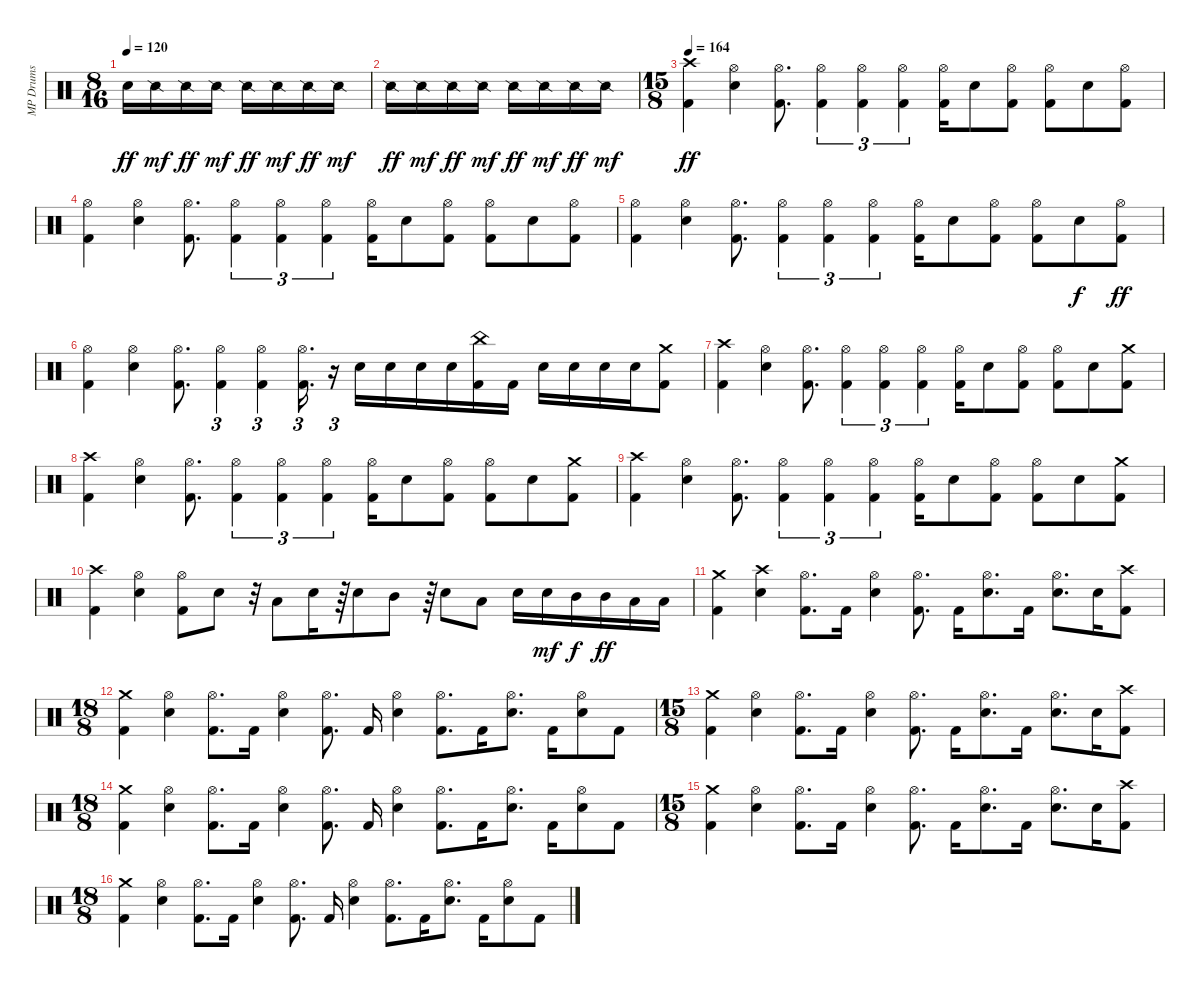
\track ("MP Drums" "MP Drums") {instrument percussion}
\staff {score}
\articulation defaults
\ts (8 16)
\tempo 120
\clef neutral
\ks c "Snare (hit) 2".16{dy ff} "Snare (side stick) 2".16{dy mf} "Snare (side stick) 2".16{dy ff} "Snare (side stick) 2".16{dy mf} "Snare (side stick) 2".16{dy ff} "Snare (side stick) 2".16{dy mf} "Snare (side stick) 2".16{dy ff} "Snare (side stick) 2".16{dy mf}
|
"Snare (side stick) 2".16{dy ff} "Snare (side stick) 2".16{dy mf} "Snare (side stick) 2".16{dy ff} "Snare (side stick) 2".16{dy mf} "Snare (side stick) 2".16{dy ff} "Snare (side stick) 2".16{dy mf} "Snare (side stick) 2".16{dy ff} "Snare (side stick) 2".16{dy mf} |
\ts (15 8)
\tempo 164
("Crash high (hit)" "Kick (hit) 2").4{dy ff} ("Hi-Hat (open)" "Snare (hit) 2").4 ("Hi-Hat (open)" "Kick (hit) 2").8{d} ("Hi-Hat (open)" "Kick (hit) 2").4{tu (3 2)} ("Hi-Hat (open)" "Kick (hit) 2").4{tu (3 2)} ("Hi-Hat (open)" "Kick (hit) 2").4{tu (3 2)} ("Hi-Hat (open)" "Kick (hit) 2").16 "Snare (hit) 2".8 ("Hi-Hat (open)" "Kick (hit) 2").8 ("Hi-Hat (open)" "Kick (hit) 2").8 "Snare (hit) 2".8 ("Hi-Hat (open)" "Kick (hit) 2").8 |
("Hi-Hat (open)" "Kick (hit) 2").4 ("Hi-Hat (open)" "Snare (hit) 2").4 ("Hi-Hat (open)" "Kick (hit) 2").8{d} ("Hi-Hat (open)" "Kick (hit) 2").4{tu (3 2)} ("Hi-Hat (open)" "Kick (hit) 2").4{tu (3 2)} ("Hi-Hat (open)" "Kick (hit) 2").4{tu (3 2)} ("Hi-Hat (open)" "Kick (hit) 2").16 "Snare (hit) 2".8 ("Hi-Hat (open)" "Kick (hit) 2").8 ("Hi-Hat (open)" "Kick (hit) 2").8 "Snare (hit) 2".8 ("Hi-Hat (open)" "Kick (hit) 2").8 |
("Hi-Hat (open)" "Kick (hit) 2").4 ("Hi-Hat (open)" "Snare (hit) 2").4 ("Hi-Hat (open)" "Kick (hit) 2").8{d} ("Hi-Hat (open)" "Kick (hit) 2").4{tu (3 2)} ("Hi-Hat (open)" "Kick (hit) 2").4{tu (3 2)} ("Hi-Hat (open)" "Kick (hit) 2").4{tu (3 2)} ("Hi-Hat (open)" "Kick (hit) 2").16 "Snare (hit) 2".8 ("Hi-Hat (open)" "Kick (hit) 2").8 ("Hi-Hat (open)" "Kick (hit) 2").8 "Snare (hit) 2".8{dy f} ("Hi-Hat (open)" "Kick (hit) 2").8{dy ff} |
("Hi-Hat (open)" "Kick (hit) 2").4 ("Hi-Hat (open)" "Snare (hit) 2").4 ("Hi-Hat (open)" "Kick (hit) 2").8{d} ("Hi-Hat (open)" "Kick (hit) 2").4{tu (3 2)} ("Hi-Hat (open)" "Kick (hit) 2").4{tu (3 2)} ("Hi-Hat (open)" "Kick (hit) 2").16{d tu (3 2)} r.16{tu (3 2)} "Snare (hit) 2".16 "Snare (hit) 2".16 "Snare (hit) 2".16 "Snare (hit) 2".16 ("China (hit)" "Kick (hit) 2").16 "Kick (hit) 2".16 "Snare (hit) 2".16 "Snare (hit) 2".16 "Snare (hit) 2".16 "Snare (hit) 2".16 ("Crash medium (hit)" "Kick (hit) 2").8 |
("Crash high (hit)" "Kick (hit) 2").4 ("Hi-Hat (open)" "Snare (hit) 2").4 ("Hi-Hat (open)" "Kick (hit) 2").8{d} ("Hi-Hat (open)" "Kick (hit) 2").4{tu (3 2)} ("Hi-Hat (open)" "Kick (hit) 2").4{tu (3 2)} ("Hi-Hat (open)" "Kick (hit) 2").4{tu (3 2)} ("Hi-Hat (open)" "Kick (hit) 2").16 "Snare (hit) 2".8 ("Hi-Hat (open)" "Kick (hit) 2").8 ("Hi-Hat (open)" "Kick (hit) 2").8 "Snare (hit) 2".8 ("Crash medium (hit)" "Kick (hit) 2").8 |
("Crash high (hit)" "Kick (hit) 2").4 ("Hi-Hat (open)" "Snare (hit) 2").4 ("Hi-Hat (open)" "Kick (hit) 2").8{d} ("Hi-Hat (open)" "Kick (hit) 2").4{tu (3 2)} ("Hi-Hat (open)" "Kick (hit) 2").4{tu (3 2)} ("Hi-Hat (open)" "Kick (hit) 2").4{tu (3 2)} ("Hi-Hat (open)" "Kick (hit) 2").16 "Snare (hit) 2".8 ("Hi-Hat (open)" "Kick (hit) 2").8 ("Hi-Hat (open)" "Kick (hit) 2").8 "Snare (hit) 2".8 ("Crash medium (hit)" "Kick (hit) 2").8 |
("Crash high (hit)" "Kick (hit) 2").4 ("Hi-Hat (open)" "Snare (hit) 2").4 ("Hi-Hat (open)" "Kick (hit) 2").8{d} ("Hi-Hat (open)" "Kick (hit) 2").4{tu (3 2)} ("Hi-Hat (open)" "Kick (hit) 2").4{tu (3 2)} ("Hi-Hat (open)" "Kick (hit) 2").4{tu (3 2)} ("Hi-Hat (open)" "Kick (hit) 2").16 "Snare (hit) 2".8 ("Hi-Hat (open)" "Kick (hit) 2").8 ("Hi-Hat (open)" "Kick (hit) 2").8 "Snare (hit) 2".8 ("Crash medium (hit)" "Kick (hit) 2").8 |
("Crash high (hit)" "Kick (hit) 2").4 ("Hi-Hat (open)" "Snare (hit) 2").4 ("Hi-Hat (open)" "Kick (hit) 2").8 "Snare (hit) 2".8 r.32 "Low Tom (hit)".8 "Snare (hit) 2".16 r.64 "Snare (hit) 2".8 "Mid Tom (hit)".8 r.64 "Snare (hit) 2".8 "Low Tom (hit)".8 "Snare (hit) 2".16 "Snare (hit) 2".16{dy mf} "Mid Tom (hit)".16{dy f} "Mid Tom (hit)".16{dy ff} "Low Tom (hit)".16 "Low Tom (hit)".16 |
("Crash medium (hit)" "Kick (hit) 2").4 ("Crash high (hit)" "Snare (hit) 2").4 ("Hi-Hat (open)" "Kick (hit) 2").8{d} "Kick (hit) 2".16 ("Hi-Hat (open)" "Snare (hit) 2").4 ("Hi-Hat (open)" "Kick (hit) 2").8{d} "Kick (hit) 2".16 ("Hi-Hat (open)" "Snare (hit) 2").8{d} "Kick (hit) 2".16 ("Hi-Hat (open)" "Snare (hit) 2").8{d} "Snare (hit) 2".16 ("Crash high (hit)" "Kick (hit) 2").8 |
\ts (18 8)
("Crash medium (hit)" "Kick (hit) 2").4 ("Hi-Hat (open)" "Snare (hit) 2").4 ("Hi-Hat (open)" "Kick (hit) 2").8{d} "Kick (hit) 2".16 ("Hi-Hat (open)" "Snare (hit) 2").4 ("Hi-Hat (open)" "Kick (hit) 2").8{d} "Kick (hit) 2".16 ("Hi-Hat (open)" "Snare (hit) 2").4 ("Hi-Hat (open)" "Kick (hit) 2").8{d} "Kick (hit) 2".16 ("Hi-Hat (open)" "Snare (hit) 2").8{d} "Kick (hit) 2".16 ("Hi-Hat (open)" "Snare (hit) 2").8 "Kick (hit) 2".8 |
\ts (15 8)
("Crash medium (hit)" "Kick (hit) 2").4 ("Hi-Hat (open)" "Snare (hit) 2").4 ("Hi-Hat (open)" "Kick (hit) 2").8{d} "Kick (hit) 2".16 ("Hi-Hat (open)" "Snare (hit) 2").4 ("Hi-Hat (open)" "Kick (hit) 2").8{d} "Kick (hit) 2".16 ("Hi-Hat (open)" "Snare (hit) 2").8{d} "Kick (hit) 2".16 ("Hi-Hat (open)" "Snare (hit) 2").8{d} "Snare (hit) 2".16 ("Crash high (hit)" "Kick (hit) 2").8 |
\ts (18 8)
("Crash medium (hit)" "Kick (hit) 2").4 ("Hi-Hat (open)" "Snare (hit) 2").4 ("Hi-Hat (open)" "Kick (hit) 2").8{d} "Kick (hit) 2".16 ("Hi-Hat (open)" "Snare (hit) 2").4 ("Hi-Hat (open)" "Kick (hit) 2").8{d} "Kick (hit) 2".16 ("Hi-Hat (open)" "Snare (hit) 2").4 ("Hi-Hat (open)" "Kick (hit) 2").8{d} "Kick (hit) 2".16 ("Hi-Hat (open)" "Snare (hit) 2").8{d} "Kick (hit) 2".16 ("Hi-Hat (open)" "Snare (hit) 2").8 "Kick (hit) 2".8 |
\ts (15 8)
("Crash medium (hit)" "Kick (hit) 2").4 ("Hi-Hat (open)" "Snare (hit) 2").4 ("Hi-Hat (open)" "Kick (hit) 2").8{d} "Kick (hit) 2".16 ("Hi-Hat (open)" "Snare (hit) 2").4 ("Hi-Hat (open)" "Kick (hit) 2").8{d} "Kick (hit) 2".16 ("Hi-Hat (open)" "Snare (hit) 2").8{d} "Kick (hit) 2".16 ("Hi-Hat (open)" "Snare (hit) 2").8{d} "Snare (hit) 2".16 ("Crash high (hit)" "Kick (hit) 2").8 |
\ts (18 8)
("Crash medium (hit)" "Kick (hit) 2").4 ("Hi-Hat (open)" "Snare (hit) 2").4 ("Hi-Hat (open)" "Kick (hit) 2").8{d} "Kick (hit) 2".16 ("Hi-Hat (open)" "Snare (hit) 2").4 ("Hi-Hat (open)" "Kick (hit) 2").8{d} "Kick (hit) 2".16 ("Hi-Hat (open)" "Snare (hit) 2").4 ("Hi-Hat (open)" "Kick (hit) 2").8{d} "Kick (hit) 2".16 ("Hi-Hat (open)" "Snare (hit) 2").8{d} "Kick (hit) 2".16 ("Hi-Hat (open)" "Snare (hit) 2").8 "Kick (hit) 2".8
